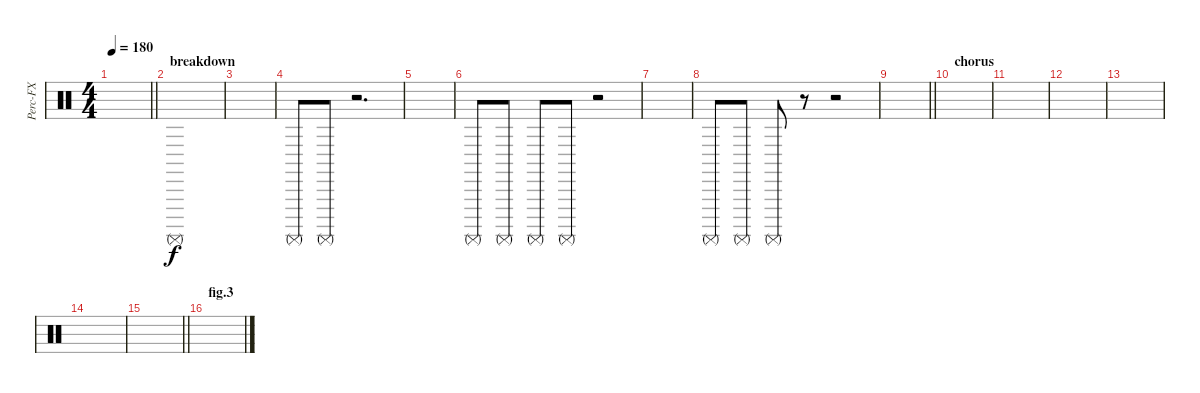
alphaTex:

\track ("Perc-FX" "Perc-FX") {instrument percussion}
\staff {score}
\articulation defaults
\ts (4 4)
\tempo 180
\clef neutral
\barLineRight lightlight
\ks c
|
\section ("" "breakdown")
"Surdo (mute)".1 |
|
"Surdo (mute)".8 "Surdo (mute)".8 r.2{d} |
|
"Surdo (mute)".8 "Surdo (mute)".8 "Surdo (mute)".8 "Surdo (mute)".8 r.2 |
|
"Surdo (mute)".8 "Surdo (mute)".8 "Surdo (mute)".8 r.8 r.2 |
\barLineRight lightlight
|
\section ("" "chorus")
|
|
|
|
|
\barLineRight lightlight
|
\section ("" "fig.3")
